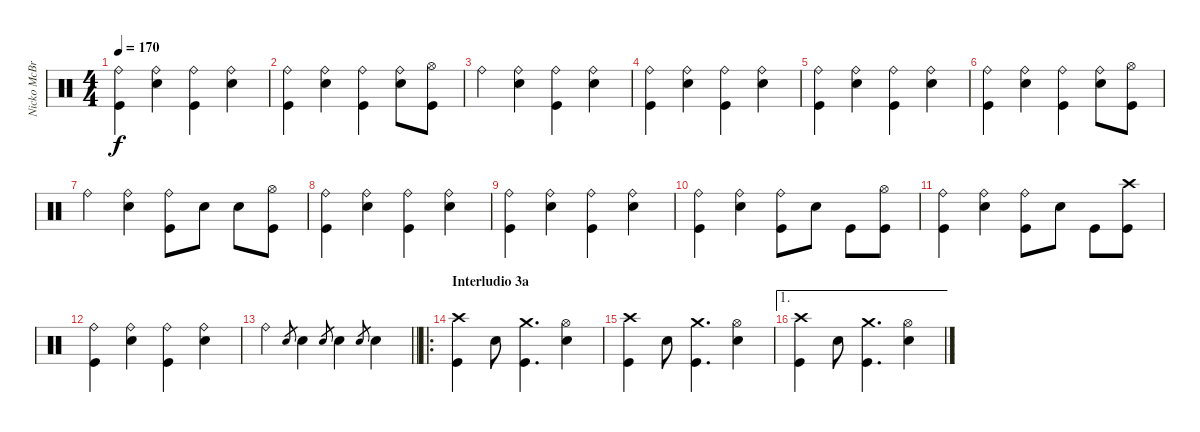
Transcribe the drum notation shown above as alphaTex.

\track ("Nicko McBrain" "Nicko McBr") {instrument percussion}
\staff {score}
\articulation defaults
\ts (4 4)
\tempo 170
\clef neutral
\ks c
("Ride (bell)" "Kick (hit)").4{dy f} ("Ride (bell)" "Snare (hit) 2").4 ("Ride (bell)" "Kick (hit)").4 ("Ride (bell)" "Snare (hit) 2").4 |
("Ride (bell)" "Kick (hit)").4 ("Ride (bell)" "Snare (hit) 2").4 ("Ride (bell)" "Kick (hit)").4 ("Ride (bell)" "Snare (hit) 2").8 ("Hi-Hat (open)" "Kick (hit)").8 |
"Ride (bell)".4 ("Ride (bell)" "Snare (hit) 2").4 ("Ride (bell)" "Kick (hit)").4 ("Ride (bell)" "Snare (hit) 2").4 |
("Ride (bell)" "Kick (hit)").4 ("Ride (bell)" "Snare (hit) 2").4 ("Ride (bell)" "Kick (hit)").4 ("Ride (bell)" "Snare (hit) 2").4 |
("Ride (bell)" "Kick (hit)").4 ("Ride (bell)" "Snare (hit) 2").4 ("Ride (bell)" "Kick (hit)").4 ("Ride (bell)" "Snare (hit) 2").4 |
("Ride (bell)" "Kick (hit)").4 ("Ride (bell)" "Snare (hit) 2").4 ("Ride (bell)" "Kick (hit)").4 ("Ride (bell)" "Snare (hit) 2").8 ("Hi-Hat (open)" "Kick (hit)").8 |
"Ride (bell)".4 ("Ride (bell)" "Snare (hit) 2").4 ("Ride (bell)" "Kick (hit)").8 "Snare (hit) 2".8 "Snare (hit) 2".8 ("Hi-Hat (open)" "Kick (hit)").8 |
("Ride (bell)" "Kick (hit)").4 ("Ride (bell)" "Snare (hit) 2").4 ("Ride (bell)" "Kick (hit)").4 ("Ride (bell)" "Snare (hit) 2").4 |
("Ride (bell)" "Kick (hit)").4 ("Ride (bell)" "Snare (hit) 2").4 ("Ride (bell)" "Kick (hit)").4 ("Ride (bell)" "Snare (hit) 2").4 |
("Ride (bell)" "Kick (hit)").4 ("Ride (bell)" "Snare (hit) 2").4 ("Ride (bell)" "Kick (hit)").8 "Snare (hit) 2".8 "Kick (hit)".8 ("Hi-Hat (open)" "Kick (hit)").8 |
("Ride (bell)" "Kick (hit)").4 ("Ride (bell)" "Snare (hit) 2").4 ("Ride (bell)" "Kick (hit)").8 "Snare (hit) 2".8 "Kick (hit)".8 ("Crash high (hit)" "Kick (hit)").8 |
("Ride (bell)" "Kick (hit)").4 ("Ride (bell)" "Snare (hit) 2").4 ("Ride (bell)" "Kick (hit)").4 ("Ride (bell)" "Snare (hit) 2").4 |
\barLineRight lightlight "Ride (bell)".4 "Snare (hit) 2".8{gr} "Snare (hit) 2".4 "Snare (hit) 2".8{gr} "Snare (hit) 2".4 "Snare (hit) 2".8{gr} "Snare (hit) 2".4
|
\ro
\section ("" "Interludio 3a")
("Crash high (hit)" "Kick (hit)").4 "Snare (hit) 2".8 ("Crash medium (hit)" "Kick (hit)").4{d} ("Hi-Hat (open)" "Snare (hit) 2").4 |
("Crash high (hit)" "Kick (hit)").4 "Snare (hit) 2".8 ("Crash medium (hit)" "Kick (hit)").4{d} ("Hi-Hat (open)" "Snare (hit) 2").4 |
\ae 1
("Crash high (hit)" "Kick (hit)").4 "Snare (hit) 2".8 ("Crash medium (hit)" "Kick (hit)").4{d} ("Hi-Hat (open)" "Snare (hit) 2").4
